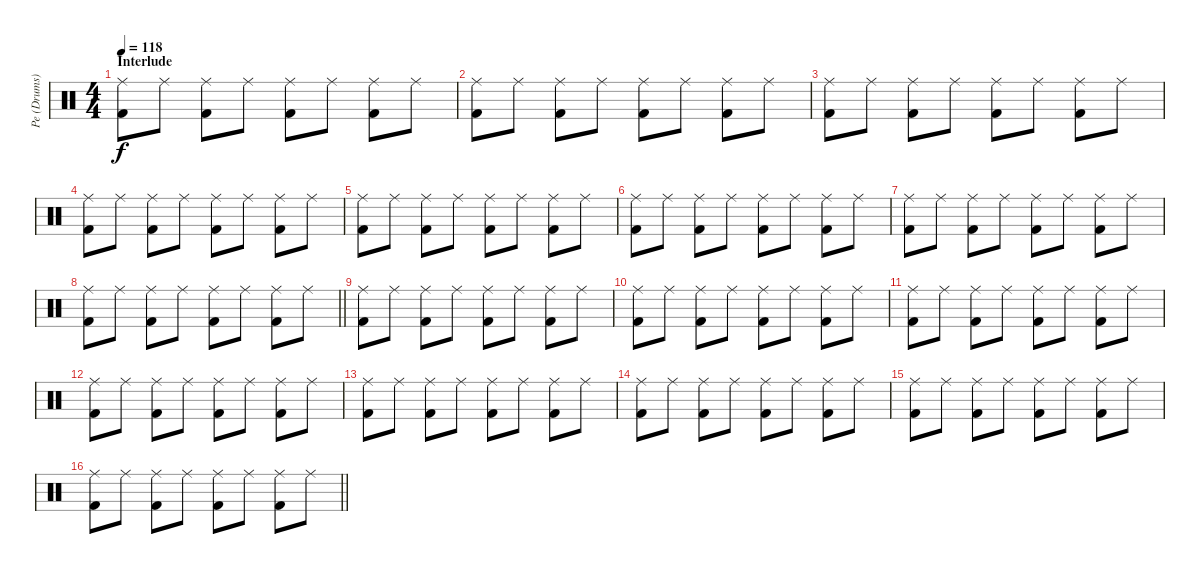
\track ("Pe (Drums)" "Pe (Drums)") {instrument percussion}
\staff {score}
\articulation defaults
\ts (4 4)
\section ("" "Interlude")
\tempo 118
\clef neutral
\ks c
("Ride (middle)" "Kick (hit) 2").8{dy f} "Ride (middle)".8 ("Ride (middle)" "Kick (hit) 2").8 "Ride (middle)".8 ("Ride (middle)" "Kick (hit) 2").8 "Ride (middle)".8 ("Ride (middle)" "Kick (hit) 2").8 "Ride (middle)".8 |
("Ride (middle)" "Kick (hit) 2").8 "Ride (middle)".8 ("Ride (middle)" "Kick (hit) 2").8 "Ride (middle)".8 ("Ride (middle)" "Kick (hit) 2").8 "Ride (middle)".8 ("Ride (middle)" "Kick (hit) 2").8 "Ride (middle)".8 |
("Ride (middle)" "Kick (hit) 2").8 "Ride (middle)".8 ("Ride (middle)" "Kick (hit) 2").8 "Ride (middle)".8 ("Ride (middle)" "Kick (hit) 2").8 "Ride (middle)".8 ("Ride (middle)" "Kick (hit) 2").8 "Ride (middle)".8 |
("Ride (middle)" "Kick (hit) 2").8 "Ride (middle)".8 ("Ride (middle)" "Kick (hit) 2").8 "Ride (middle)".8 ("Ride (middle)" "Kick (hit) 2").8 "Ride (middle)".8 ("Ride (middle)" "Kick (hit) 2").8 "Ride (middle)".8 |
("Ride (middle)" "Kick (hit) 2").8 "Ride (middle)".8 ("Ride (middle)" "Kick (hit) 2").8 "Ride (middle)".8 ("Ride (middle)" "Kick (hit) 2").8 "Ride (middle)".8 ("Ride (middle)" "Kick (hit) 2").8 "Ride (middle)".8 |
("Ride (middle)" "Kick (hit) 2").8 "Ride (middle)".8 ("Ride (middle)" "Kick (hit) 2").8 "Ride (middle)".8 ("Ride (middle)" "Kick (hit) 2").8 "Ride (middle)".8 ("Ride (middle)" "Kick (hit) 2").8 "Ride (middle)".8 |
("Ride (middle)" "Kick (hit) 2").8 "Ride (middle)".8 ("Ride (middle)" "Kick (hit) 2").8 "Ride (middle)".8 ("Ride (middle)" "Kick (hit) 2").8 "Ride (middle)".8 ("Ride (middle)" "Kick (hit) 2").8 "Ride (middle)".8 |
\barLineRight lightlight
("Ride (middle)" "Kick (hit) 2").8 "Ride (middle)".8 ("Ride (middle)" "Kick (hit) 2").8 "Ride (middle)".8 ("Ride (middle)" "Kick (hit) 2").8 "Ride (middle)".8 ("Ride (middle)" "Kick (hit) 2").8 "Ride (middle)".8 |
("Ride (middle)" "Kick (hit) 2").8 "Ride (middle)".8 ("Ride (middle)" "Kick (hit) 2").8 "Ride (middle)".8 ("Ride (middle)" "Kick (hit) 2").8 "Ride (middle)".8 ("Ride (middle)" "Kick (hit) 2").8 "Ride (middle)".8 |
("Ride (middle)" "Kick (hit) 2").8 "Ride (middle)".8 ("Ride (middle)" "Kick (hit) 2").8 "Ride (middle)".8 ("Ride (middle)" "Kick (hit) 2").8 "Ride (middle)".8 ("Ride (middle)" "Kick (hit) 2").8 "Ride (middle)".8 |
("Ride (middle)" "Kick (hit) 2").8 "Ride (middle)".8 ("Ride (middle)" "Kick (hit) 2").8 "Ride (middle)".8 ("Ride (middle)" "Kick (hit) 2").8 "Ride (middle)".8 ("Ride (middle)" "Kick (hit) 2").8 "Ride (middle)".8 |
("Ride (middle)" "Kick (hit) 2").8 "Ride (middle)".8 ("Ride (middle)" "Kick (hit) 2").8 "Ride (middle)".8 ("Ride (middle)" "Kick (hit) 2").8 "Ride (middle)".8 ("Ride (middle)" "Kick (hit) 2").8 "Ride (middle)".8 |
("Ride (middle)" "Kick (hit) 2").8 "Ride (middle)".8 ("Ride (middle)" "Kick (hit) 2").8 "Ride (middle)".8 ("Ride (middle)" "Kick (hit) 2").8 "Ride (middle)".8 ("Ride (middle)" "Kick (hit) 2").8 "Ride (middle)".8 |
("Ride (middle)" "Kick (hit) 2").8 "Ride (middle)".8 ("Ride (middle)" "Kick (hit) 2").8 "Ride (middle)".8 ("Ride (middle)" "Kick (hit) 2").8 "Ride (middle)".8 ("Ride (middle)" "Kick (hit) 2").8 "Ride (middle)".8 |
("Ride (middle)" "Kick (hit) 2").8 "Ride (middle)".8 ("Ride (middle)" "Kick (hit) 2").8 "Ride (middle)".8 ("Ride (middle)" "Kick (hit) 2").8 "Ride (middle)".8 ("Ride (middle)" "Kick (hit) 2").8 "Ride (middle)".8 |
\barLineRight lightlight
("Ride (middle)" "Kick (hit) 2").8 "Ride (middle)".8 ("Ride (middle)" "Kick (hit) 2").8 "Ride (middle)".8 ("Ride (middle)" "Kick (hit) 2").8 "Ride (middle)".8 ("Ride (middle)" "Kick (hit) 2").8 "Ride (middle)".8
